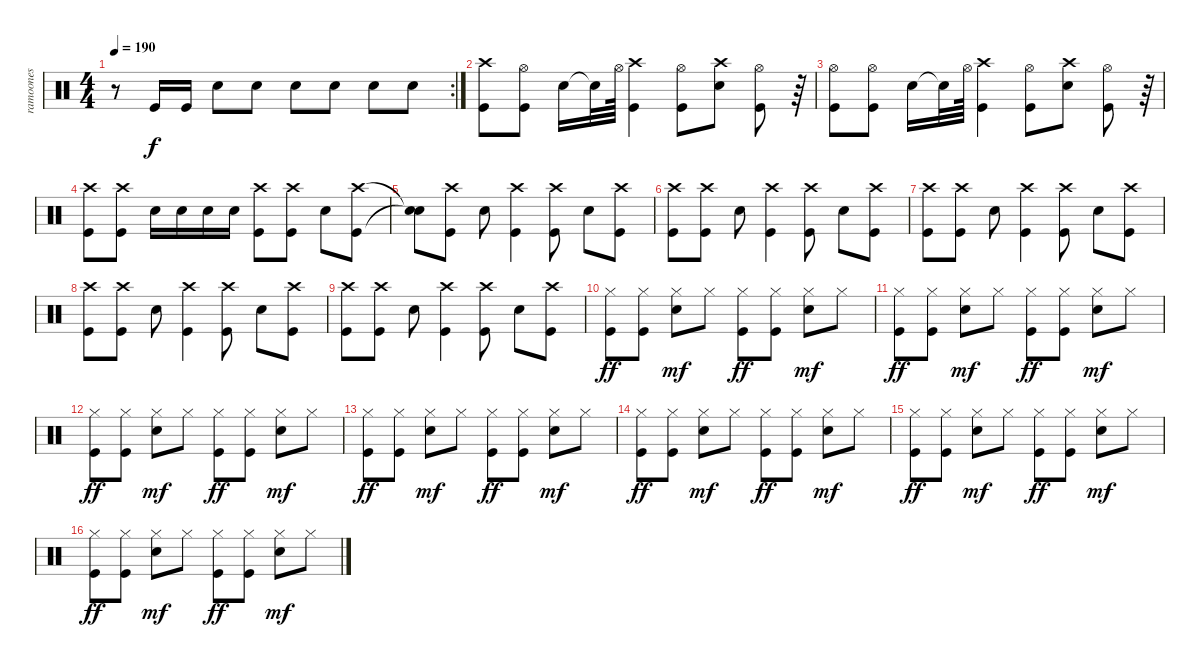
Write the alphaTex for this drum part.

\track ("ramoones" "ramoones") {instrument percussion}
\staff {score}
\articulation defaults
\rc 2
\ts (4 4)
\tempo 190
\clef neutral
\ks c
r.8{dy f} "Kick (hit)".16 "Kick (hit)".16 "Electric Snare (hit)".8 "Electric Snare (hit)".8 "Electric Snare (hit)".8 "Electric Snare (hit)".8 "Electric Snare (hit)".8 "Electric Snare (hit)".8 |
("Crash high (hit)" "Kick (hit)").8 ("Hi-Hat (open)" "Kick (hit)").8 "Electric Snare (hit)".16 "Snare (hit)"{t}.32 "Hi-Hat (open)".64 ("Crash high (hit)" "Kick (hit)").4 ("Hi-Hat (open)" "Kick (hit)").8 ("Crash high (hit)" "Electric Snare (hit)").8 ("Hi-Hat (open)" "Kick (hit)").8 r.64 |
("Hi-Hat (open)" "Kick (hit)").8 ("Hi-Hat (open)" "Kick (hit)").8 "Electric Snare (hit)".16 "Snare (hit)"{t}.32 "Hi-Hat (open)".64 ("Crash high (hit)" "Kick (hit)").4 ("Hi-Hat (open)" "Kick (hit)").8 ("Crash high (hit)" "Electric Snare (hit)").8 ("Hi-Hat (open)" "Kick (hit)").8 r.64 |
("Crash high (hit)" "Kick (hit)").8 ("Crash high (hit)" "Kick (hit)").8 "Electric Snare (hit)".16 "Electric Snare (hit)".16 "Electric Snare (hit)".16 "Electric Snare (hit)".16 ("Crash high (hit)" "Kick (hit)").8 ("Crash high (hit)" "Kick (hit)").8 "Electric Snare (hit)".8 ("Crash high (hit)" "Kick (hit)").8 |
("Snare (hit)"{t} "Snare (hit)"{t}).8 ("Crash high (hit)" "Kick (hit)").8 "Electric Snare (hit)".8 ("Crash high (hit)" "Kick (hit)").4 ("Crash high (hit)" "Kick (hit)").8 "Electric Snare (hit)".8 ("Crash high (hit)" "Kick (hit)").8 |
("Crash high (hit)" "Kick (hit)").8 ("Crash high (hit)" "Kick (hit)").8 "Electric Snare (hit)".8 ("Crash high (hit)" "Kick (hit)").4 ("Crash high (hit)" "Kick (hit)").8 "Electric Snare (hit)".8 ("Crash high (hit)" "Kick (hit)").8 |
("Crash high (hit)" "Kick (hit)").8 ("Crash high (hit)" "Kick (hit)").8 "Electric Snare (hit)".8 ("Crash high (hit)" "Kick (hit)").4 ("Crash high (hit)" "Kick (hit)").8 "Electric Snare (hit)".8 ("Crash high (hit)" "Kick (hit)").8 |
("Crash high (hit)" "Kick (hit)").8 ("Crash high (hit)" "Kick (hit)").8 "Electric Snare (hit)".8 ("Crash high (hit)" "Kick (hit)").4 ("Crash high (hit)" "Kick (hit)").8 "Electric Snare (hit)".8 ("Crash high (hit)" "Kick (hit)").8 |
("Crash high (hit)" "Kick (hit)").8 ("Crash high (hit)" "Kick (hit)").8 "Electric Snare (hit)".8 ("Crash high (hit)" "Kick (hit)").4 ("Crash high (hit)" "Kick (hit)").8 "Electric Snare (hit)".8 ("Crash high (hit)" "Kick (hit)").8 |
("Hi-Hat (closed)" "Kick (hit)").8{dy ff} ("Hi-Hat (closed)" "Kick (hit)").8 ("Hi-Hat (closed)" "Electric Snare (hit)").8{dy mf} "Hi-Hat (closed)".8 ("Hi-Hat (closed)" "Kick (hit)").8{dy ff} ("Hi-Hat (closed)" "Kick (hit)").8 ("Hi-Hat (closed)" "Electric Snare (hit)").8{dy mf} "Hi-Hat (closed)".8 |
("Hi-Hat (closed)" "Kick (hit)").8{dy ff} ("Hi-Hat (closed)" "Kick (hit)").8 ("Hi-Hat (closed)" "Electric Snare (hit)").8{dy mf} "Hi-Hat (closed)".8 ("Hi-Hat (closed)" "Kick (hit)").8{dy ff} ("Hi-Hat (closed)" "Kick (hit)").8 ("Hi-Hat (closed)" "Electric Snare (hit)").8{dy mf} "Hi-Hat (closed)".8 |
("Hi-Hat (closed)" "Kick (hit)").8{dy ff} ("Hi-Hat (closed)" "Kick (hit)").8 ("Hi-Hat (closed)" "Electric Snare (hit)").8{dy mf} "Hi-Hat (closed)".8 ("Hi-Hat (closed)" "Kick (hit)").8{dy ff} ("Hi-Hat (closed)" "Kick (hit)").8 ("Hi-Hat (closed)" "Electric Snare (hit)").8{dy mf} "Hi-Hat (closed)".8 |
("Hi-Hat (closed)" "Kick (hit)").8{dy ff} ("Hi-Hat (closed)" "Kick (hit)").8 ("Hi-Hat (closed)" "Electric Snare (hit)").8{dy mf} "Hi-Hat (closed)".8 ("Hi-Hat (closed)" "Kick (hit)").8{dy ff} ("Hi-Hat (closed)" "Kick (hit)").8 ("Hi-Hat (closed)" "Electric Snare (hit)").8{dy mf} "Hi-Hat (closed)".8 |
("Hi-Hat (closed)" "Kick (hit)").8{dy ff} ("Hi-Hat (closed)" "Kick (hit)").8 ("Hi-Hat (closed)" "Electric Snare (hit)").8{dy mf} "Hi-Hat (closed)".8 ("Hi-Hat (closed)" "Kick (hit)").8{dy ff} ("Hi-Hat (closed)" "Kick (hit)").8 ("Hi-Hat (closed)" "Electric Snare (hit)").8{dy mf} "Hi-Hat (closed)".8 |
("Hi-Hat (closed)" "Kick (hit)").8{dy ff} ("Hi-Hat (closed)" "Kick (hit)").8 ("Hi-Hat (closed)" "Electric Snare (hit)").8{dy mf} "Hi-Hat (closed)".8 ("Hi-Hat (closed)" "Kick (hit)").8{dy ff} ("Hi-Hat (closed)" "Kick (hit)").8 ("Hi-Hat (closed)" "Electric Snare (hit)").8{dy mf} "Hi-Hat (closed)".8 |
("Hi-Hat (closed)" "Kick (hit)").8{dy ff} ("Hi-Hat (closed)" "Kick (hit)").8 ("Hi-Hat (closed)" "Electric Snare (hit)").8{dy mf} "Hi-Hat (closed)".8 ("Hi-Hat (closed)" "Kick (hit)").8{dy ff} ("Hi-Hat (closed)" "Kick (hit)").8 ("Hi-Hat (closed)" "Electric Snare (hit)").8{dy mf} "Hi-Hat (closed)".8
